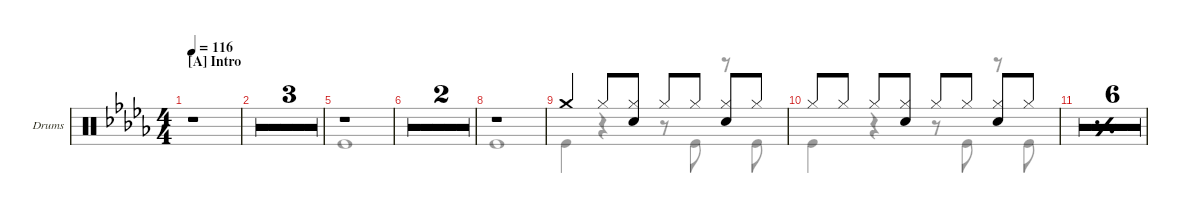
\hideDynamics
\bracketExtendMode nobrackets
\firstSystemTrackNameOrientation horizontal
\otherSystemsTrackNameOrientation horizontal
\track ("Drums" "Drums") {multiBarRest instrument percussion}
\staff {score}
\articulation defaults
\voice
\ts (4 4)
\section ("A" "Intro")
\tempo 116
\clef neutral
\ks db
r.1{dy mf} |
r.1 |
r.1 |
r.1 |
r.1 |
r.1 |
r.1 |
r.1 |
"Crash medium (hit)".4 "Hi-Hat (closed)".8 ("Hi-Hat (closed)" "Snare (hit) 2").8 "Hi-Hat (closed)".8 "Hi-Hat (closed)".8 ("Hi-Hat (closed)" "Snare (hit) 2").8 "Hi-Hat (closed)".8 |
"Hi-Hat (closed)".8 "Hi-Hat (closed)".8 "Hi-Hat (closed)".8 ("Hi-Hat (closed)" "Snare (hit) 2").8 "Hi-Hat (closed)".8 "Hi-Hat (closed)".8 ("Hi-Hat (closed)" "Snare (hit) 2").8 "Hi-Hat (closed)".8 |
\simile simple
|
\simile firstofdouble
|
\simile secondofdouble
|
\simile firstofdouble
|
\simile secondofdouble
|
\simile firstofdouble
\voice
\clef neutral
\ottava regular
\simile none
\ks db
|
|
|
|
"Kick (hit)".1 |
|
|
"Kick (hit)".1 |
"Kick (hit)".4 r.4 r.8 "Kick (hit)".8 r.8 "Kick (hit)".8 |
"Kick (hit)".4 r.4 r.8 "Kick (hit)".8 r.8 "Kick (hit)".8 |
\simile simple
|
\simile firstofdouble
|
\simile secondofdouble
|
\simile firstofdouble
|
\simile secondofdouble
|
\simile firstofdouble
